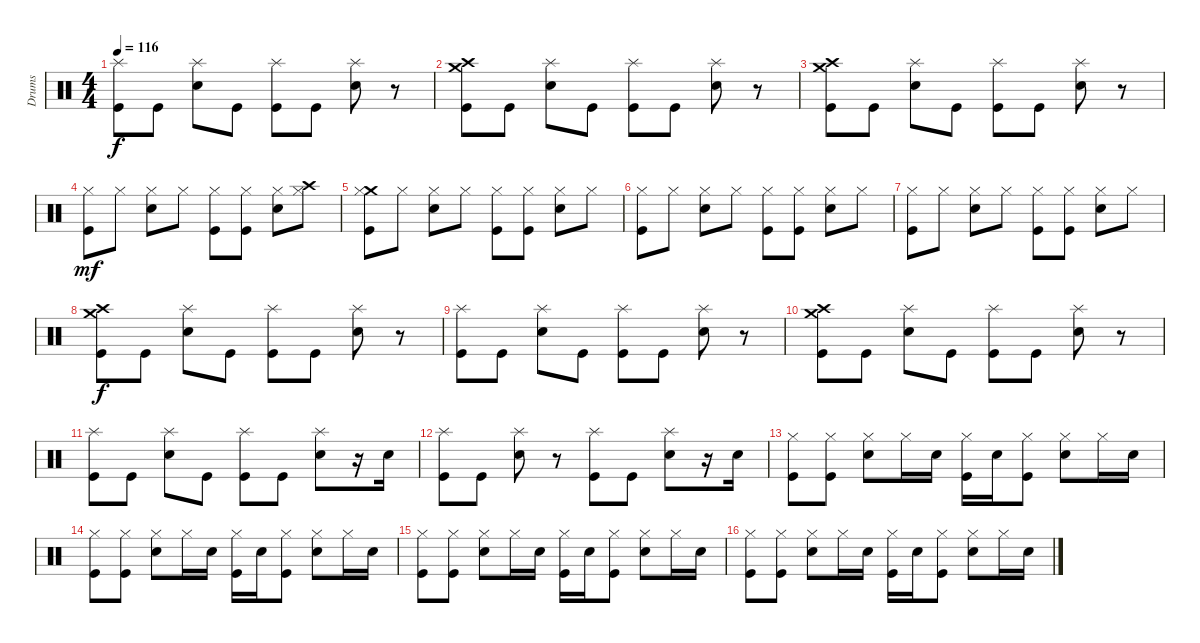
\track ("Drums" "Drums") {instrument percussion}
\staff {score}
\articulation defaults
\ts (4 4)
\tempo 116
\clef neutral
\ks c
("Splash (hit)" "Kick (hit)").8{dy f} "Kick (hit)".8 ("Splash (hit)" "Electric Snare (hit)").8 "Kick (hit)".8 ("Splash (hit)" "Kick (hit)").8 "Kick (hit)".8 ("Splash (hit)" "Electric Snare (hit)").8 r.8 |
("Crash medium (hit)" "Crash high (hit)" "Kick (hit)").8 "Kick (hit)".8 ("Splash (hit)" "Electric Snare (hit)").8 "Kick (hit)".8 ("Splash (hit)" "Kick (hit)").8 "Kick (hit)".8 ("Splash (hit)" "Electric Snare (hit)").8 r.8 |
("Crash medium (hit)" "Crash high (hit)" "Kick (hit)").8 "Kick (hit)".8 ("Splash (hit)" "Electric Snare (hit)").8 "Kick (hit)".8 ("Splash (hit)" "Kick (hit)").8 "Kick (hit)".8 ("Splash (hit)" "Electric Snare (hit)").8 r.8 |
("Hi-Hat (closed)" "Kick (hit)").8{dy mf} "Hi-Hat (closed)".8 ("Hi-Hat (closed)" "Electric Snare (hit)").8 "Hi-Hat (closed)".8 ("Hi-Hat (closed)" "Kick (hit)").8 ("Hi-Hat (closed)" "Kick (hit)").8 ("Hi-Hat (closed)" "Electric Snare (hit)").8 ("Crash high (hit)" "Hi-Hat (closed)").8 |
("Crash medium (hit)" "Hi-Hat (closed)" "Kick (hit)").8 "Hi-Hat (closed)".8 ("Hi-Hat (closed)" "Electric Snare (hit)").8 "Hi-Hat (closed)".8 ("Hi-Hat (closed)" "Kick (hit)").8 ("Hi-Hat (closed)" "Kick (hit)").8 ("Hi-Hat (closed)" "Electric Snare (hit)").8 "Hi-Hat (closed)".8 |
("Hi-Hat (closed)" "Kick (hit)").8 "Hi-Hat (closed)".8 ("Hi-Hat (closed)" "Electric Snare (hit)").8 "Hi-Hat (closed)".8 ("Hi-Hat (closed)" "Kick (hit)").8 ("Hi-Hat (closed)" "Kick (hit)").8 ("Hi-Hat (closed)" "Electric Snare (hit)").8 "Hi-Hat (closed)".8 |
("Hi-Hat (closed)" "Kick (hit)").8 "Hi-Hat (closed)".8 ("Hi-Hat (closed)" "Electric Snare (hit)").8 "Hi-Hat (closed)".8 ("Hi-Hat (closed)" "Kick (hit)").8 ("Hi-Hat (closed)" "Kick (hit)").8 ("Hi-Hat (closed)" "Electric Snare (hit)").8 "Hi-Hat (closed)".8 |
("Crash medium (hit)" "Crash high (hit)" "Kick (hit)").8{dy f} "Kick (hit)".8 ("Splash (hit)" "Electric Snare (hit)").8 "Kick (hit)".8 ("Splash (hit)" "Kick (hit)").8 "Kick (hit)".8 ("Splash (hit)" "Electric Snare (hit)").8 r.8 |
("Splash (hit)" "Kick (hit)").8 "Kick (hit)".8 ("Splash (hit)" "Electric Snare (hit)").8 "Kick (hit)".8 ("Splash (hit)" "Kick (hit)").8 "Kick (hit)".8 ("Splash (hit)" "Electric Snare (hit)").8 r.8 |
("Crash medium (hit)" "Crash high (hit)" "Kick (hit)").8 "Kick (hit)".8 ("Splash (hit)" "Electric Snare (hit)").8 "Kick (hit)".8 ("Splash (hit)" "Kick (hit)").8 "Kick (hit)".8 ("Splash (hit)" "Electric Snare (hit)").8 r.8 |
("Splash (hit)" "Kick (hit)").8 "Kick (hit)".8 ("Splash (hit)" "Electric Snare (hit)").8 "Kick (hit)".8 ("Splash (hit)" "Kick (hit)").8 "Kick (hit)".8 ("Splash (hit)" "Electric Snare (hit)").8 r.16 "Electric Snare (hit)".16 |
("Kick (hit)" "Splash (hit)").8 "Kick (hit)".8 ("Splash (hit)" "Electric Snare (hit)").8 r.8 ("Splash (hit)" "Kick (hit)").8 "Kick (hit)".8 ("Splash (hit)" "Electric Snare (hit)").8 r.16 "Electric Snare (hit)".16 |
("Hi-Hat (closed)" "Kick (hit)").8 ("Hi-Hat (closed)" "Kick (hit)").8 ("Hi-Hat (closed)" "Electric Snare (hit)").8 "Hi-Hat (closed)".16 "Electric Snare (hit)".16 ("Kick (hit)" "Hi-Hat (closed)").16 "Electric Snare (hit)".16 ("Kick (hit)" "Hi-Hat (closed)").8 ("Hi-Hat (closed)" "Electric Snare (hit)").8 "Hi-Hat (closed)".16 "Electric Snare (hit)".16 |
("Hi-Hat (closed)" "Kick (hit)").8 ("Hi-Hat (closed)" "Kick (hit)").8 ("Hi-Hat (closed)" "Electric Snare (hit)").8 "Hi-Hat (closed)".16 "Electric Snare (hit)".16 ("Hi-Hat (closed)" "Kick (hit)").16 "Electric Snare (hit)".16 ("Hi-Hat (closed)" "Kick (hit)").8 ("Hi-Hat (closed)" "Electric Snare (hit)").8 "Hi-Hat (closed)".16 "Electric Snare (hit)".16 |
("Hi-Hat (closed)" "Kick (hit)").8 ("Hi-Hat (closed)" "Kick (hit)").8 ("Hi-Hat (closed)" "Electric Snare (hit)").8 "Hi-Hat (closed)".16 "Electric Snare (hit)".16 ("Hi-Hat (closed)" "Kick (hit)").16 "Electric Snare (hit)".16 ("Hi-Hat (closed)" "Kick (hit)").8 ("Hi-Hat (closed)" "Electric Snare (hit)").8 "Hi-Hat (closed)".16 "Electric Snare (hit)".16 |
("Hi-Hat (closed)" "Kick (hit)").8 ("Hi-Hat (closed)" "Kick (hit)").8 ("Hi-Hat (closed)" "Electric Snare (hit)").8 "Hi-Hat (closed)".16 "Electric Snare (hit)".16 ("Hi-Hat (closed)" "Kick (hit)").16 "Electric Snare (hit)".16 ("Hi-Hat (closed)" "Kick (hit)").8 ("Hi-Hat (closed)" "Electric Snare (hit)").8 "Hi-Hat (closed)".16 "Electric Snare (hit)".16
